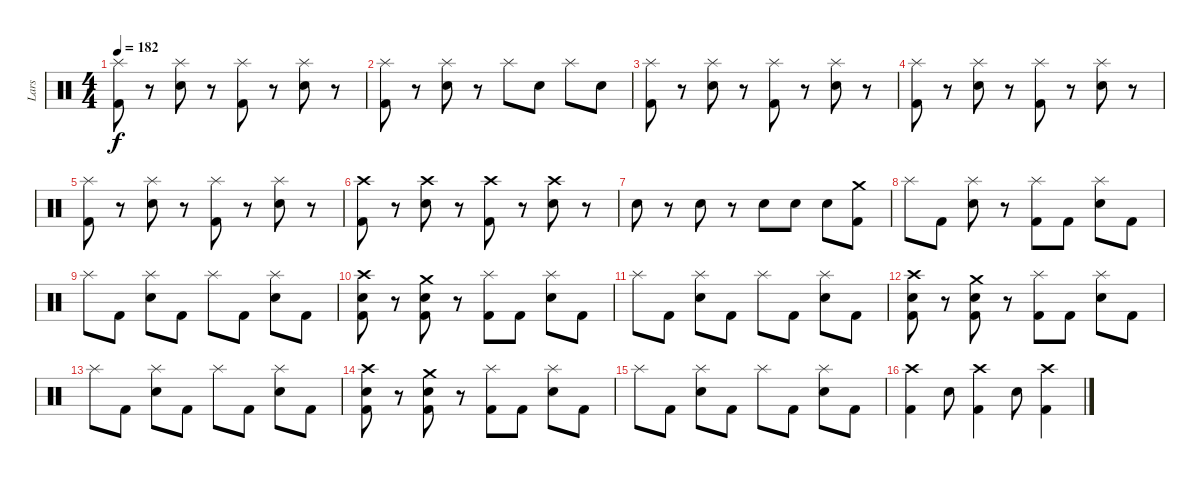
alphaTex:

\track ("Lars" "Lars") {instrument percussion}
\staff {score}
\articulation defaults
\ts (4 4)
\tempo 182
\clef neutral
\ks c
("Splash (hit)" "Kick (hit) 2").8{dy f} r.8 ("Splash (hit)" "Snare (hit) 2").8 r.8 ("Splash (hit)" "Kick (hit) 2").8 r.8 ("Splash (hit)" "Snare (hit) 2").8 r.8 |
("Splash (hit)" "Kick (hit) 2").8 r.8 ("Splash (hit)" "Snare (hit) 2").8 r.8 "Splash (hit)".8 "Snare (hit) 2".8 "Splash (hit)".8 "Snare (hit) 2".8 |
("Splash (hit)" "Kick (hit) 2").8 r.8 ("Splash (hit)" "Snare (hit) 2").8 r.8 ("Splash (hit)" "Kick (hit) 2").8 r.8 ("Splash (hit)" "Snare (hit) 2").8 r.8 |
("Splash (hit)" "Kick (hit) 2").8 r.8 ("Splash (hit)" "Snare (hit) 2").8 r.8 ("Splash (hit)" "Kick (hit) 2").8 r.8 ("Splash (hit)" "Snare (hit) 2").8 r.8 |
("Splash (hit)" "Kick (hit) 2").8 r.8 ("Splash (hit)" "Snare (hit) 2").8 r.8 ("Splash (hit)" "Kick (hit) 2").8 r.8 ("Splash (hit)" "Snare (hit) 2").8 r.8 |
("Crash high (hit)" "Kick (hit) 2").8 r.8 ("Crash high (hit)" "Snare (hit) 2").8 r.8 ("Crash high (hit)" "Kick (hit) 2").8 r.8 ("Crash high (hit)" "Snare (hit) 2").8 r.8 |
"Snare (hit) 2".8 r.8 "Snare (hit) 2".8 r.8 "Snare (hit) 2".8 "Snare (hit) 2".8 "Snare (hit) 2".8 ("Crash medium (hit)" "Kick (hit) 2").8 |
"Splash (hit)".8 "Kick (hit) 2".8 ("Splash (hit)" "Snare (hit) 2").8 r.8 ("Splash (hit)" "Kick (hit) 2").8 "Kick (hit) 2".8 ("Splash (hit)" "Snare (hit) 2").8 "Kick (hit) 2".8 |
"Splash (hit)".8 "Kick (hit) 2".8 ("Splash (hit)" "Snare (hit) 2").8 "Kick (hit) 2".8 "Splash (hit)".8 "Kick (hit) 2".8 ("Splash (hit)" "Snare (hit) 2").8 "Kick (hit) 2".8 |
("Crash high (hit)" "Snare (hit) 2" "Kick (hit) 2").8 r.8 ("Crash medium (hit)" "Snare (hit) 2" "Kick (hit) 2").8 r.8 ("Splash (hit)" "Kick (hit) 2").8 "Kick (hit) 2".8 ("Splash (hit)" "Snare (hit) 2").8 "Kick (hit) 2".8 |
"Splash (hit)".8 "Kick (hit) 2".8 ("Splash (hit)" "Snare (hit) 2").8 "Kick (hit) 2".8 "Splash (hit)".8 "Kick (hit) 2".8 ("Splash (hit)" "Snare (hit) 2").8 "Kick (hit) 2".8 |
("Crash high (hit)" "Snare (hit) 2" "Kick (hit) 2").8 r.8 ("Crash medium (hit)" "Snare (hit) 2" "Kick (hit) 2").8 r.8 ("Splash (hit)" "Kick (hit) 2").8 "Kick (hit) 2".8 ("Splash (hit)" "Snare (hit) 2").8 "Kick (hit) 2".8 |
"Splash (hit)".8 "Kick (hit) 2".8 ("Splash (hit)" "Snare (hit) 2").8 "Kick (hit) 2".8 "Splash (hit)".8 "Kick (hit) 2".8 ("Splash (hit)" "Snare (hit) 2").8 "Kick (hit) 2".8 |
("Crash high (hit)" "Snare (hit) 2" "Kick (hit) 2").8 r.8 ("Crash medium (hit)" "Snare (hit) 2" "Kick (hit) 2").8 r.8 ("Splash (hit)" "Kick (hit) 2").8 "Kick (hit) 2".8 ("Splash (hit)" "Snare (hit) 2").8 "Kick (hit) 2".8 |
"Splash (hit)".8 "Kick (hit) 2".8 ("Splash (hit)" "Snare (hit) 2").8 "Kick (hit) 2".8 "Splash (hit)".8 "Kick (hit) 2".8 ("Splash (hit)" "Snare (hit) 2").8 "Kick (hit) 2".8 |
("Crash high (hit)" "Kick (hit) 2").4 "Snare (hit) 2".8 ("Crash high (hit)" "Kick (hit) 2").4 "Snare (hit) 2".8 ("Crash high (hit)" "Kick (hit) 2").4
